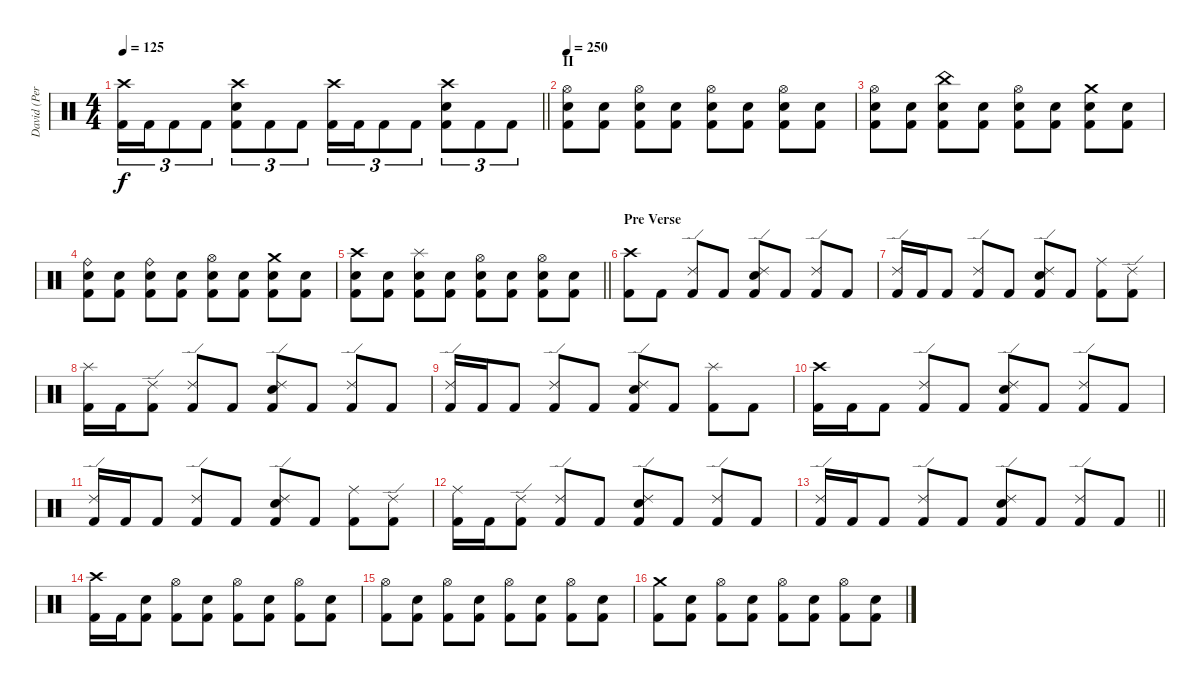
\track ("David (Percussion)" "David (Per") {instrument percussion}
\staff {score}
\articulation defaults
\ts (4 4)
\tempo 125
\clef neutral
\barLineRight lightlight
\ks c
("Crash high (hit)" "Kick (hit) 2").16{tu (3 2) dy f} "Kick (hit) 2".16{tu (3 2)} "Kick (hit) 2".8{tu (3 2)} "Kick (hit) 2".8{tu (3 2)} ("Crash high (hit)" "Electric Snare (hit)" "Kick (hit) 2").8{tu (3 2)} "Kick (hit) 2".8{tu (3 2)} "Kick (hit) 2".8{tu (3 2)} ("Crash high (hit)" "Kick (hit) 2").16{tu (3 2)} "Kick (hit) 2".16{tu (3 2)} "Kick (hit) 2".8{tu (3 2)} "Kick (hit) 2".8{tu (3 2)} ("Crash high (hit)" "Electric Snare (hit)" "Kick (hit) 2").8{tu (3 2)} "Kick (hit) 2".8{tu (3 2)} "Kick (hit) 2".8{tu (3 2)} |
\section ("" "II")
\tempo 250
("Hi-Hat (open)" "Electric Snare (hit)" "Kick (hit) 2").8 ("Electric Snare (hit)" "Kick (hit) 2").8 ("Hi-Hat (open)" "Electric Snare (hit)" "Kick (hit) 2").8 ("Electric Snare (hit)" "Kick (hit) 2").8 ("Hi-Hat (open)" "Electric Snare (hit)" "Kick (hit) 2").8 ("Electric Snare (hit)" "Kick (hit) 2").8 ("Hi-Hat (open)" "Electric Snare (hit)" "Kick (hit) 2").8 ("Electric Snare (hit)" "Kick (hit) 2").8 |
("Hi-Hat (open)" "Electric Snare (hit)" "Kick (hit) 2").8 ("Electric Snare (hit)" "Kick (hit) 2").8 ("China (hit)" "Electric Snare (hit)" "Kick (hit) 2").8 ("Electric Snare (hit)" "Kick (hit) 2").8 ("Hi-Hat (open)" "Electric Snare (hit)" "Kick (hit) 2").8 ("Electric Snare (hit)" "Kick (hit) 2").8 ("Crash medium (hit)" "Electric Snare (hit)" "Kick (hit) 2").8 ("Electric Snare (hit)" "Kick (hit) 2").8 |
("Ride (bell)" "Electric Snare (hit)" "Kick (hit) 2").8 ("Electric Snare (hit)" "Kick (hit) 2").8 ("Ride (bell)" "Electric Snare (hit)" "Kick (hit) 2").8 ("Electric Snare (hit)" "Kick (hit) 2").8 ("Hi-Hat (open)" "Electric Snare (hit)" "Kick (hit) 2").8 ("Electric Snare (hit)" "Kick (hit) 2").8 ("Crash medium (hit)" "Electric Snare (hit)" "Kick (hit) 2").8 ("Electric Snare (hit)" "Kick (hit) 2").8 |
\barLineRight lightlight
("Crash high (hit)" "Electric Snare (hit)" "Kick (hit) 2").8 ("Electric Snare (hit)" "Kick (hit) 2").8 ("Splash (hit)" "Electric Snare (hit)" "Kick (hit) 2").8 ("Electric Snare (hit)" "Kick (hit) 2").8 ("Hi-Hat (open)" "Electric Snare (hit)" "Kick (hit) 2").8 ("Electric Snare (hit)" "Kick (hit) 2").8 ("Hi-Hat (open)" "Electric Snare (hit)" "Kick (hit) 2").8 ("Electric Snare (hit)" "Kick (hit) 2").8 |
\section ("" "Pre Verse")
("Crash high (hit)" "Kick (hit) 2").8 "Kick (hit) 2".8 ("Ride (edge) 2" "Kick (hit) 2").8 "Kick (hit) 2".8 ("Ride (edge) 2" "Electric Snare (hit)" "Kick (hit) 2").8 "Kick (hit) 2".8 ("Ride (edge) 2" "Kick (hit) 2").8 "Kick (hit) 2".8 |
("Ride (edge) 2" "Kick (hit) 2").16 "Kick (hit) 2".16 "Kick (hit) 2".8 ("Ride (edge) 2" "Kick (hit) 2").8 "Kick (hit) 2".8 ("Ride (edge) 2" "Electric Snare (hit)" "Kick (hit) 2").8 "Kick (hit) 2".8 ("Ride (middle)" "Kick (hit) 2").8 ("Ride (edge) 2" "Kick (hit) 2").8 |
("Splash (hit)" "Kick (hit) 2").16 "Kick (hit) 2".16 ("Ride (edge) 2" "Kick (hit) 2").8 ("Ride (edge) 2" "Kick (hit) 2").8 "Kick (hit) 2".8 ("Ride (edge) 2" "Electric Snare (hit)" "Kick (hit) 2").8 "Kick (hit) 2".8 ("Ride (edge) 2" "Kick (hit) 2").8 "Kick (hit) 2".8 |
("Ride (edge) 2" "Kick (hit) 2").16 "Kick (hit) 2".16 "Kick (hit) 2".8 ("Ride (edge) 2" "Kick (hit) 2").8 "Kick (hit) 2".8 ("Ride (edge) 2" "Electric Snare (hit)" "Kick (hit) 2").8 "Kick (hit) 2".8 ("Splash (hit)" "Kick (hit) 2").8 "Kick (hit) 2".8 |
("Crash high (hit)" "Kick (hit) 2").16 "Kick (hit) 2".16 "Kick (hit) 2".8 ("Ride (edge) 2" "Kick (hit) 2").8 "Kick (hit) 2".8 ("Ride (edge) 2" "Electric Snare (hit)" "Kick (hit) 2").8 "Kick (hit) 2".8 ("Ride (edge) 2" "Kick (hit) 2").8 "Kick (hit) 2".8 |
("Ride (edge) 2" "Kick (hit) 2").16 "Kick (hit) 2".16 "Kick (hit) 2".8 ("Ride (edge) 2" "Kick (hit) 2").8 "Kick (hit) 2".8 ("Ride (edge) 2" "Electric Snare (hit)" "Kick (hit) 2").8 "Kick (hit) 2".8 ("Ride (middle)" "Kick (hit) 2").8 ("Ride (edge) 2" "Kick (hit) 2").8 |
("Ride (middle)" "Kick (hit) 2").16 "Kick (hit) 2".16 ("Ride (edge) 2" "Kick (hit) 2").8 ("Ride (edge) 2" "Kick (hit) 2").8 "Kick (hit) 2".8 ("Ride (edge) 2" "Electric Snare (hit)" "Kick (hit) 2").8 "Kick (hit) 2".8 ("Ride (edge) 2" "Kick (hit) 2").8 "Kick (hit) 2".8 |
\barLineRight lightlight
("Ride (edge) 2" "Kick (hit) 2").16 "Kick (hit) 2".16 "Kick (hit) 2".8 ("Ride (edge) 2" "Kick (hit) 2").8 "Kick (hit) 2".8 ("Ride (edge) 2" "Electric Snare (hit)" "Kick (hit) 2").8 "Kick (hit) 2".8 ("Ride (edge) 2" "Kick (hit) 2").8 "Kick (hit) 2".8 |
\section ("" "")
("Crash high (hit)" "Kick (hit) 2").16 "Kick (hit) 2".16 ("Electric Snare (hit)" "Kick (hit) 2").8 ("Hi-Hat (open)" "Kick (hit) 2").8 ("Electric Snare (hit)" "Kick (hit) 2").8 ("Hi-Hat (open)" "Kick (hit) 2").8 ("Electric Snare (hit)" "Kick (hit) 2").8 ("Hi-Hat (open)" "Kick (hit) 2").8 ("Electric Snare (hit)" "Kick (hit) 2").8 |
("Hi-Hat (open)" "Kick (hit) 2").8 ("Electric Snare (hit)" "Kick (hit) 2").8 ("Hi-Hat (open)" "Kick (hit) 2").8 ("Electric Snare (hit)" "Kick (hit) 2").8 ("Hi-Hat (open)" "Kick (hit) 2").8 ("Electric Snare (hit)" "Kick (hit) 2").8 ("Hi-Hat (open)" "Kick (hit) 2").8 ("Electric Snare (hit)" "Kick (hit) 2").8 |
("Crash medium (hit)" "Kick (hit) 2").8 ("Electric Snare (hit)" "Kick (hit) 2").8 ("Hi-Hat (open)" "Kick (hit) 2").8 ("Electric Snare (hit)" "Kick (hit) 2").8 ("Hi-Hat (open)" "Kick (hit) 2").8 ("Electric Snare (hit)" "Kick (hit) 2").8 ("Hi-Hat (open)" "Kick (hit) 2").8 ("Electric Snare (hit)" "Kick (hit) 2").8
